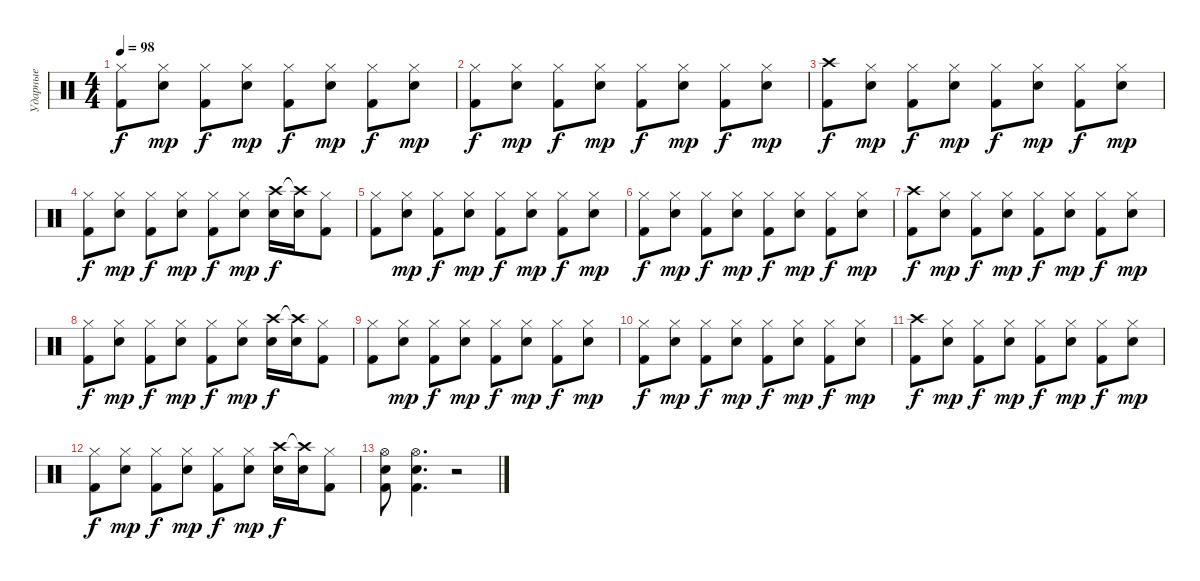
\track ("Ударные" "Ударные") {instrument percussion}
\staff {score}
\articulation defaults
\ts (4 4)
\tempo 98
\clef neutral
\ks c
("Hi-Hat (closed)" "Kick (hit) 2").8{dy f} ("Hi-Hat (closed)" "Snare (hit) 2").8{dy mp} ("Hi-Hat (closed)" "Kick (hit) 2").8{dy f} ("Hi-Hat (closed)" "Snare (hit) 2").8{dy mp} ("Hi-Hat (closed)" "Kick (hit) 2").8{dy f} ("Hi-Hat (closed)" "Snare (hit) 2").8{dy mp} ("Hi-Hat (closed)" "Kick (hit) 2").8{dy f} ("Hi-Hat (closed)" "Snare (hit) 2").8{dy mp} |
("Hi-Hat (closed)" "Kick (hit) 2").8{dy f} ("Hi-Hat (closed)" "Snare (hit) 2").8{dy mp} ("Hi-Hat (closed)" "Kick (hit) 2").8{dy f} ("Hi-Hat (closed)" "Snare (hit) 2").8{dy mp} ("Hi-Hat (closed)" "Kick (hit) 2").8{dy f} ("Hi-Hat (closed)" "Snare (hit) 2").8{dy mp} ("Hi-Hat (closed)" "Kick (hit) 2").8{dy f} ("Hi-Hat (closed)" "Snare (hit) 2").8{dy mp} |
("Crash high (hit)" "Kick (hit) 2").8{dy f} ("Hi-Hat (closed)" "Snare (hit) 2").8{dy mp} ("Hi-Hat (closed)" "Kick (hit) 2").8{dy f} ("Hi-Hat (closed)" "Snare (hit) 2").8{dy mp} ("Hi-Hat (closed)" "Kick (hit) 2").8{dy f} ("Hi-Hat (closed)" "Snare (hit) 2").8{dy mp} ("Hi-Hat (closed)" "Kick (hit) 2").8{dy f} ("Hi-Hat (closed)" "Snare (hit) 2").8{dy mp} |
("Hi-Hat (closed)" "Kick (hit) 2").8{dy f} ("Hi-Hat (closed)" "Snare (hit) 2").8{dy mp} ("Hi-Hat (closed)" "Kick (hit) 2").8{dy f} ("Hi-Hat (closed)" "Snare (hit) 2").8{dy mp} ("Hi-Hat (closed)" "Kick (hit) 2").8{dy f} ("Hi-Hat (closed)" "Snare (hit) 2").8{dy mp} ("Crash high (hit)" "Electric Snare (hit)").16{dy f} ("Crash high (hit)"{t} "Snare (hit) 2").16 ("Hi-Hat (closed)" "Kick (hit) 2").8 |
("Hi-Hat (closed)" "Kick (hit) 2").8 ("Hi-Hat (closed)" "Snare (hit) 2").8{dy mp} ("Hi-Hat (closed)" "Kick (hit) 2").8{dy f} ("Hi-Hat (closed)" "Snare (hit) 2").8{dy mp} ("Hi-Hat (closed)" "Kick (hit) 2").8{dy f} ("Hi-Hat (closed)" "Snare (hit) 2").8{dy mp} ("Hi-Hat (closed)" "Kick (hit) 2").8{dy f} ("Hi-Hat (closed)" "Snare (hit) 2").8{dy mp} |
("Hi-Hat (closed)" "Kick (hit) 2").8{dy f} ("Hi-Hat (closed)" "Snare (hit) 2").8{dy mp} ("Hi-Hat (closed)" "Kick (hit) 2").8{dy f} ("Hi-Hat (closed)" "Snare (hit) 2").8{dy mp} ("Hi-Hat (closed)" "Kick (hit) 2").8{dy f} ("Hi-Hat (closed)" "Snare (hit) 2").8{dy mp} ("Hi-Hat (closed)" "Kick (hit) 2").8{dy f} ("Hi-Hat (closed)" "Snare (hit) 2").8{dy mp} |
("Crash high (hit)" "Kick (hit) 2").8{dy f} ("Hi-Hat (closed)" "Snare (hit) 2").8{dy mp} ("Hi-Hat (closed)" "Kick (hit) 2").8{dy f} ("Hi-Hat (closed)" "Snare (hit) 2").8{dy mp} ("Hi-Hat (closed)" "Kick (hit) 2").8{dy f} ("Hi-Hat (closed)" "Snare (hit) 2").8{dy mp} ("Hi-Hat (closed)" "Kick (hit) 2").8{dy f} ("Hi-Hat (closed)" "Snare (hit) 2").8{dy mp} |
("Hi-Hat (closed)" "Kick (hit) 2").8{dy f} ("Hi-Hat (closed)" "Snare (hit) 2").8{dy mp} ("Hi-Hat (closed)" "Kick (hit) 2").8{dy f} ("Hi-Hat (closed)" "Snare (hit) 2").8{dy mp} ("Hi-Hat (closed)" "Kick (hit) 2").8{dy f} ("Hi-Hat (closed)" "Snare (hit) 2").8{dy mp} ("Crash high (hit)" "Electric Snare (hit)").16{dy f} ("Crash high (hit)"{t} "Snare (hit) 2").16 ("Hi-Hat (closed)" "Kick (hit) 2").8 |
("Hi-Hat (closed)" "Kick (hit) 2").8 ("Hi-Hat (closed)" "Snare (hit) 2").8{dy mp} ("Hi-Hat (closed)" "Kick (hit) 2").8{dy f} ("Hi-Hat (closed)" "Snare (hit) 2").8{dy mp} ("Hi-Hat (closed)" "Kick (hit) 2").8{dy f} ("Hi-Hat (closed)" "Snare (hit) 2").8{dy mp} ("Hi-Hat (closed)" "Kick (hit) 2").8{dy f} ("Hi-Hat (closed)" "Snare (hit) 2").8{dy mp} |
("Hi-Hat (closed)" "Kick (hit) 2").8{dy f} ("Hi-Hat (closed)" "Snare (hit) 2").8{dy mp} ("Hi-Hat (closed)" "Kick (hit) 2").8{dy f} ("Hi-Hat (closed)" "Snare (hit) 2").8{dy mp} ("Hi-Hat (closed)" "Kick (hit) 2").8{dy f} ("Hi-Hat (closed)" "Snare (hit) 2").8{dy mp} ("Hi-Hat (closed)" "Kick (hit) 2").8{dy f} ("Hi-Hat (closed)" "Snare (hit) 2").8{dy mp} |
("Crash high (hit)" "Kick (hit) 2").8{dy f} ("Hi-Hat (closed)" "Snare (hit) 2").8{dy mp} ("Hi-Hat (closed)" "Kick (hit) 2").8{dy f} ("Hi-Hat (closed)" "Snare (hit) 2").8{dy mp} ("Hi-Hat (closed)" "Kick (hit) 2").8{dy f} ("Hi-Hat (closed)" "Snare (hit) 2").8{dy mp} ("Hi-Hat (closed)" "Kick (hit) 2").8{dy f} ("Hi-Hat (closed)" "Snare (hit) 2").8{dy mp} |
("Hi-Hat (closed)" "Kick (hit) 2").8{dy f} ("Hi-Hat (closed)" "Snare (hit) 2").8{dy mp} ("Hi-Hat (closed)" "Kick (hit) 2").8{dy f} ("Hi-Hat (closed)" "Snare (hit) 2").8{dy mp} ("Hi-Hat (closed)" "Kick (hit) 2").8{dy f} ("Hi-Hat (closed)" "Snare (hit) 2").8{dy mp} ("Crash high (hit)" "Electric Snare (hit)").16{dy f} ("Crash high (hit)"{t} "Snare (hit) 2").16 ("Hi-Hat (closed)" "Kick (hit) 2").8 |
("Snare (hit) 2" "Kick (hit) 2" "Hi-Hat (open)").8 ("Snare (hit) 2" "Kick (hit) 2" "Hi-Hat (open)").4{d} r.2
